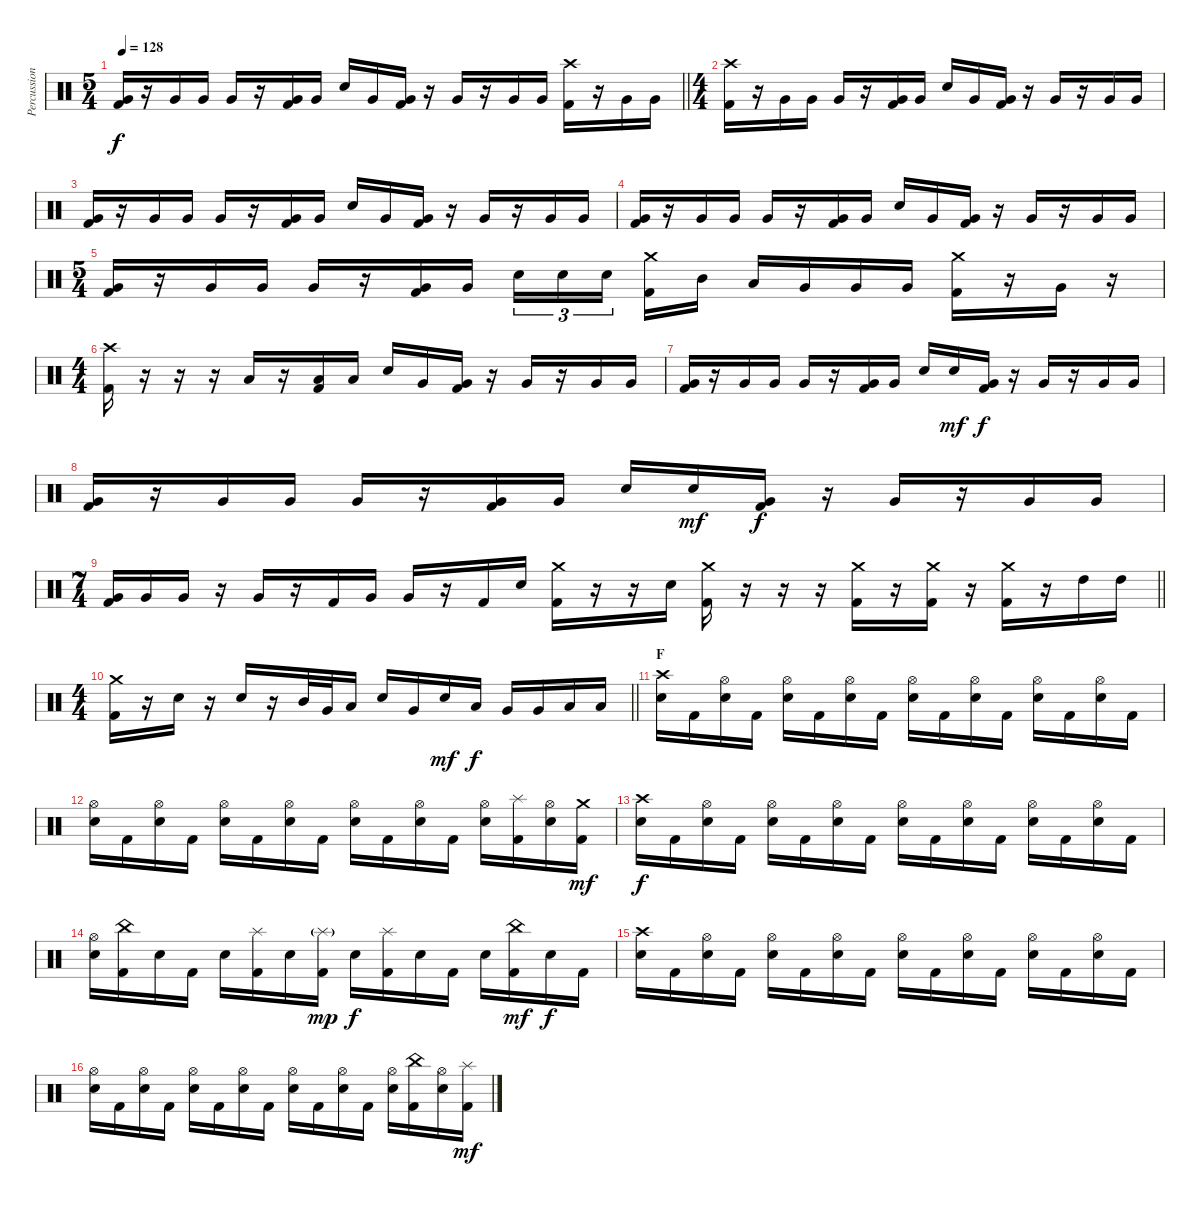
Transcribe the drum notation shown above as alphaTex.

\track ("Percussion" "Percussion") {instrument percussion}
\staff {score}
\articulation defaults
\ts (5 4)
\tempo 128
\clef neutral
\barLineRight lightlight
\ks c
("Very Low Tom (hit)" "Kick (hit) 2").16{dy f} r.16 "Very Low Tom (hit)".16 "Very Low Tom (hit)".16 "Very Low Tom (hit)".16 r.16 ("Very Low Tom (hit)" "Kick (hit) 2").16 "Very Low Tom (hit)".16 "Snare (hit) 2".16 "Very Low Tom (hit)".16 ("Very Low Tom (hit)" "Kick (hit) 2").16 r.16 "Very Low Tom (hit)".16 r.16 "Very Low Tom (hit)".16 "Very Low Tom (hit)".16 ("Crash high (hit)" "Kick (hit) 2").16 r.16 "Very Low Tom (hit)".16 "Very Low Tom (hit)".16 |
\ts (4 4)
("Crash high (hit)" "Kick (hit) 2").16 r.16 "Very Low Tom (hit)".16 "Very Low Tom (hit)".16 "Very Low Tom (hit)".16 r.16 ("Very Low Tom (hit)" "Kick (hit) 2").16 "Very Low Tom (hit)".16 "Snare (hit) 2".16 "Very Low Tom (hit)".16 ("Very Low Tom (hit)" "Kick (hit) 2").16 r.16 "Very Low Tom (hit)".16 r.16 "Very Low Tom (hit)".16 "Very Low Tom (hit)".16 |
("Very Low Tom (hit)" "Kick (hit) 2").16 r.16 "Very Low Tom (hit)".16 "Very Low Tom (hit)".16 "Very Low Tom (hit)".16 r.16 ("Very Low Tom (hit)" "Kick (hit) 2").16 "Very Low Tom (hit)".16 "Snare (hit) 2".16 "Very Low Tom (hit)".16 ("Very Low Tom (hit)" "Kick (hit) 2").16 r.16 "Very Low Tom (hit)".16 r.16 "Very Low Tom (hit)".16 "Very Low Tom (hit)".16 |
("Very Low Tom (hit)" "Kick (hit) 2").16 r.16 "Very Low Tom (hit)".16 "Very Low Tom (hit)".16 "Very Low Tom (hit)".16 r.16 ("Very Low Tom (hit)" "Kick (hit) 2").16 "Very Low Tom (hit)".16 "Snare (hit) 2".16 "Very Low Tom (hit)".16 ("Very Low Tom (hit)" "Kick (hit) 2").16 r.16 "Very Low Tom (hit)".16 r.16 "Very Low Tom (hit)".16 "Very Low Tom (hit)".16 |
\ts (5 4)
("Very Low Tom (hit)" "Kick (hit) 2").16 r.16 "Very Low Tom (hit)".16 "Very Low Tom (hit)".16 "Very Low Tom (hit)".16 r.16 ("Very Low Tom (hit)" "Kick (hit) 2").16 "Very Low Tom (hit)".16 "Snare (hit) 2".16{tu (3 2)} "Snare (hit) 2".16{tu (3 2)} "Snare (hit) 2".16{tu (3 2) beam splitsecondary} ("Crash medium (hit)" "Kick (hit) 2").16 "Mid Tom (hit)".16 "Low Tom (hit)".16 "Very Low Tom (hit)".16 "Very Low Tom (hit)".16 "Very Low Tom (hit)".16 ("Crash medium (hit)" "Kick (hit) 2").16 r.16 "Very Low Tom (hit)".16 r.16 |
\ts (4 4)
("Crash high (hit)" "Kick (hit) 2").16 r.16 r.16 r.16 "Low Tom (hit)".16 r.16 ("Low Tom (hit)" "Kick (hit) 2").16 "Low Tom (hit)".16 "Snare (hit) 2".16 "Very Low Tom (hit)".16 ("Very Low Tom (hit)" "Kick (hit) 2").16 r.16 "Very Low Tom (hit)".16 r.16 "Very Low Tom (hit)".16 "Very Low Tom (hit)".16 |
("Very Low Tom (hit)" "Kick (hit) 2").16 r.16 "Very Low Tom (hit)".16 "Very Low Tom (hit)".16 "Very Low Tom (hit)".16 r.16 ("Very Low Tom (hit)" "Kick (hit) 2").16 "Very Low Tom (hit)".16 "Snare (hit) 2".16 "Snare (hit) 2".16{dy mf} ("Very Low Tom (hit)" "Kick (hit) 2").16{dy f} r.16 "Very Low Tom (hit)".16 r.16 "Very Low Tom (hit)".16 "Very Low Tom (hit)".16 |
("Very Low Tom (hit)" "Kick (hit) 2").16 r.16 "Very Low Tom (hit)".16 "Very Low Tom (hit)".16 "Very Low Tom (hit)".16 r.16 ("Very Low Tom (hit)" "Kick (hit) 2").16 "Very Low Tom (hit)".16 "Snare (hit) 2".16 "Snare (hit) 2".16{dy mf} ("Very Low Tom (hit)" "Kick (hit) 2").16{dy f} r.16 "Very Low Tom (hit)".16 r.16 "Very Low Tom (hit)".16 "Very Low Tom (hit)".16 |
\ts (7 4)
\barLineRight lightlight
("Very Low Tom (hit)" "Kick (hit) 2").16 "Very Low Tom (hit)".16 "Very Low Tom (hit)".16 r.16 "Very Low Tom (hit)".16 r.16 "Kick (hit) 2".16 "Very Low Tom (hit)".16 "Very Low Tom (hit)".16 r.16 "Kick (hit) 2".16 "Snare (hit) 2".16 ("Crash medium (hit)" "Kick (hit) 2").16 r.16 r.16 "Snare (hit) 2".16 ("Crash medium (hit)" "Kick (hit) 2").16 r.16 r.16 r.16 ("Crash medium (hit)" "Kick (hit) 2").16 r.16 ("Crash medium (hit)" "Kick (hit) 2").16 r.16 ("Crash medium (hit)" "Kick (hit) 2").16 r.16 "High Tom (hit)".16 "High Tom (hit)".16 |
\ts (4 4)
\barLineRight lightlight
("Crash medium (hit)" "Kick (hit) 2").16 r.16 "Snare (hit) 2".16 r.16 "Snare (hit) 2".16 r.16 "Mid Tom (hit)".32 "Very Low Tom (hit)".32 "Low Tom (hit)".16 "Snare (hit) 2".16 "Very Low Tom (hit)".16 "Snare (hit) 2".16{dy mf} "Low Tom (hit)".16{dy f} "Very Low Tom (hit)".16 "Very Low Tom (hit)".16 "Low Floor Tom (hit)".16 "Low Floor Tom (hit)".16 |
\section ("" "F")
("Crash high (hit)" "Snare (hit) 2").16 "Kick (hit) 2".16 ("Hi-Hat (open)" "Snare (hit) 2").16 "Kick (hit) 2".16 ("Hi-Hat (open)" "Snare (hit) 2").16 "Kick (hit) 2".16 ("Hi-Hat (open)" "Snare (hit) 2").16 "Kick (hit) 2".16 ("Hi-Hat (open)" "Snare (hit) 2").16 "Kick (hit) 2".16 ("Hi-Hat (open)" "Snare (hit) 2").16 "Kick (hit) 2".16 ("Hi-Hat (open)" "Snare (hit) 2").16 "Kick (hit) 2".16 ("Hi-Hat (open)" "Snare (hit) 2").16 "Kick (hit) 2".16 |
("Hi-Hat (open)" "Snare (hit) 2").16 "Kick (hit) 2".16 ("Hi-Hat (open)" "Snare (hit) 2").16 "Kick (hit) 2".16 ("Hi-Hat (open)" "Snare (hit) 2").16 "Kick (hit) 2".16 ("Hi-Hat (open)" "Snare (hit) 2").16 "Kick (hit) 2".16 ("Hi-Hat (open)" "Snare (hit) 2").16 "Kick (hit) 2".16 ("Hi-Hat (open)" "Snare (hit) 2").16 "Kick (hit) 2".16 ("Hi-Hat (open)" "Snare (hit) 2").16 ("Splash (hit)" "Kick (hit) 2").16 ("Hi-Hat (open)" "Snare (hit) 2").16 ("Crash medium (hit)" "Kick (hit) 2").16{dy mf} |
("Crash high (hit)" "Snare (hit) 2").16{dy f} "Kick (hit) 2".16 ("Hi-Hat (open)" "Snare (hit) 2").16 "Kick (hit) 2".16 ("Hi-Hat (open)" "Snare (hit) 2").16 "Kick (hit) 2".16 ("Hi-Hat (open)" "Snare (hit) 2").16 "Kick (hit) 2".16 ("Hi-Hat (open)" "Snare (hit) 2").16 "Kick (hit) 2".16 ("Hi-Hat (open)" "Snare (hit) 2").16 "Kick (hit) 2".16 ("Hi-Hat (open)" "Snare (hit) 2").16 "Kick (hit) 2".16 ("Hi-Hat (open)" "Snare (hit) 2").16 "Kick (hit) 2".16 |
("Hi-Hat (open)" "Snare (hit) 2").16 ("China (hit)" "Kick (hit) 2").16 "Snare (hit) 2".16 "Kick (hit) 2".16 "Snare (hit) 2".16 ("Splash (hit)" "Kick (hit) 2").16 "Snare (hit) 2".16 ("Splash (hit)"{g} "Kick (hit) 2").16{dy mp} "Snare (hit) 2".16{dy f} ("Splash (hit)" "Kick (hit) 2").16 "Snare (hit) 2".16 "Kick (hit) 2".16 "Snare (hit) 2".16 ("China (hit)" "Kick (hit) 2").16{dy mf} "Snare (hit) 2".16{dy f} "Kick (hit) 2".16 |
("Crash high (hit)" "Snare (hit) 2").16 "Kick (hit) 2".16 ("Hi-Hat (open)" "Snare (hit) 2").16 "Kick (hit) 2".16 ("Hi-Hat (open)" "Snare (hit) 2").16 "Kick (hit) 2".16 ("Hi-Hat (open)" "Snare (hit) 2").16 "Kick (hit) 2".16 ("Hi-Hat (open)" "Snare (hit) 2").16 "Kick (hit) 2".16 ("Hi-Hat (open)" "Snare (hit) 2").16 "Kick (hit) 2".16 ("Hi-Hat (open)" "Snare (hit) 2").16 "Kick (hit) 2".16 ("Hi-Hat (open)" "Snare (hit) 2").16 "Kick (hit) 2".16 |
("Hi-Hat (open)" "Snare (hit) 2").16 "Kick (hit) 2".16 ("Hi-Hat (open)" "Snare (hit) 2").16 "Kick (hit) 2".16 ("Hi-Hat (open)" "Snare (hit) 2").16 "Kick (hit) 2".16 ("Hi-Hat (open)" "Snare (hit) 2").16 "Kick (hit) 2".16 ("Hi-Hat (open)" "Snare (hit) 2").16 "Kick (hit) 2".16 ("Hi-Hat (open)" "Snare (hit) 2").16 "Kick (hit) 2".16 ("Hi-Hat (open)" "Snare (hit) 2").16 ("China (hit)" "Kick (hit) 2").16 ("Hi-Hat (open)" "Snare (hit) 2").16 ("Splash (hit)" "Kick (hit) 2").16{dy mf}
